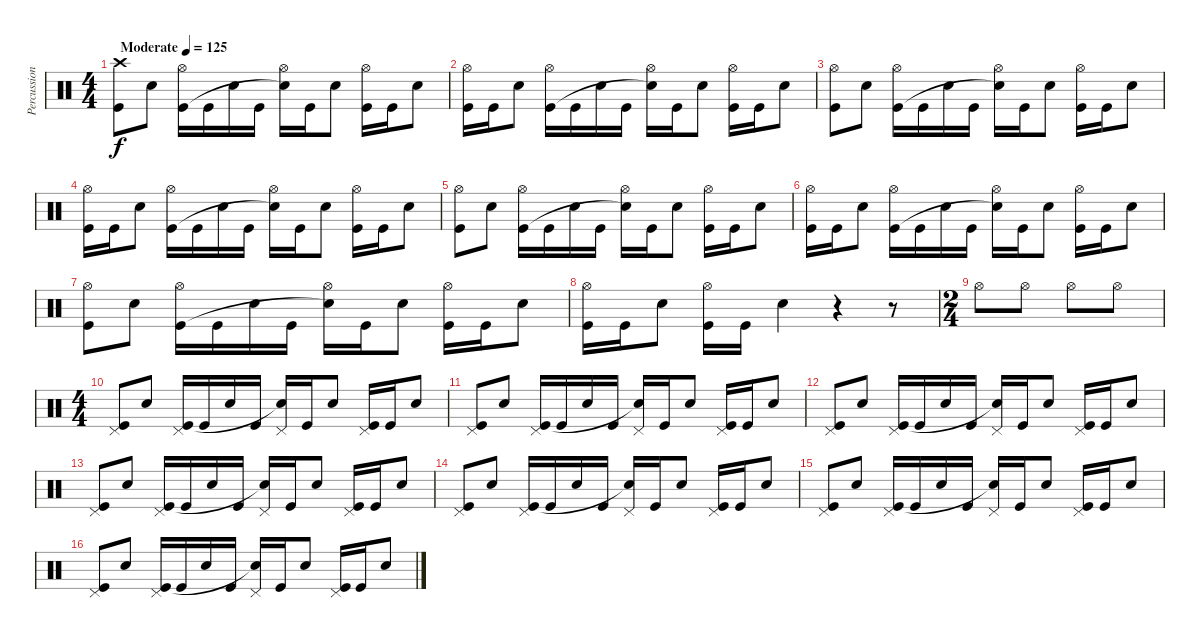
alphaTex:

\track ("Percussion" "Percussion") {instrument percussion}
\staff {score}
\articulation defaults
\ts (4 4)
\tempo (125 "Moderate")
\clef neutral
\ks c
("Crash high (hit)" "Kick (hit)").8{dy f} "Electric Snare (hit)".8 ("Hi-Hat (open)" "Kick (hit)").16 "Kick (hit)".16 "Electric Snare (hit)".16 "Kick (hit)".16 ("Hi-Hat (open)" "Snare (hit)"{t}).16 "Kick (hit)".16 "Electric Snare (hit)".8 ("Hi-Hat (open)" "Kick (hit)").16 "Kick (hit)".16 "Electric Snare (hit)".8 |
("Hi-Hat (open)" "Kick (hit)").16 "Kick (hit)".16 "Electric Snare (hit)".8 ("Hi-Hat (open)" "Kick (hit)").16 "Kick (hit)".16 "Electric Snare (hit)".16 "Kick (hit)".16 ("Hi-Hat (open)" "Snare (hit)"{t}).16 "Kick (hit)".16 "Electric Snare (hit)".8 ("Hi-Hat (open)" "Kick (hit)").16 "Kick (hit)".16 "Electric Snare (hit)".8 |
("Hi-Hat (open)" "Kick (hit)").8 "Electric Snare (hit)".8 ("Hi-Hat (open)" "Kick (hit)").16 "Kick (hit)".16 "Electric Snare (hit)".16 "Kick (hit)".16 ("Hi-Hat (open)" "Snare (hit)"{t}).16 "Kick (hit)".16 "Electric Snare (hit)".8 ("Hi-Hat (open)" "Kick (hit)").16 "Kick (hit)".16 "Electric Snare (hit)".8 |
("Hi-Hat (open)" "Kick (hit)").16 "Kick (hit)".16 "Electric Snare (hit)".8 ("Hi-Hat (open)" "Kick (hit)").16 "Kick (hit)".16 "Electric Snare (hit)".16 "Kick (hit)".16 ("Hi-Hat (open)" "Snare (hit)"{t}).16 "Kick (hit)".16 "Electric Snare (hit)".8 ("Hi-Hat (open)" "Kick (hit)").16 "Kick (hit)".16 "Electric Snare (hit)".8 |
("Hi-Hat (open)" "Kick (hit)").8 "Electric Snare (hit)".8 ("Hi-Hat (open)" "Kick (hit)").16 "Kick (hit)".16 "Electric Snare (hit)".16 "Kick (hit)".16 ("Hi-Hat (open)" "Snare (hit)"{t}).16 "Kick (hit)".16 "Electric Snare (hit)".8 ("Hi-Hat (open)" "Kick (hit)").16 "Kick (hit)".16 "Electric Snare (hit)".8 |
("Hi-Hat (open)" "Kick (hit)").16 "Kick (hit)".16 "Electric Snare (hit)".8 ("Hi-Hat (open)" "Kick (hit)").16 "Kick (hit)".16 "Electric Snare (hit)".16 "Kick (hit)".16 ("Hi-Hat (open)" "Snare (hit)"{t}).16 "Kick (hit)".16 "Electric Snare (hit)".8 ("Hi-Hat (open)" "Kick (hit)").16 "Kick (hit)".16 "Electric Snare (hit)".8 |
("Hi-Hat (open)" "Kick (hit)").8 "Electric Snare (hit)".8 ("Hi-Hat (open)" "Kick (hit)").16 "Kick (hit)".16 "Electric Snare (hit)".16 "Kick (hit)".16 ("Hi-Hat (open)" "Snare (hit)"{t}).16 "Kick (hit)".16 "Electric Snare (hit)".8 ("Hi-Hat (open)" "Kick (hit)").16 "Kick (hit)".16 "Electric Snare (hit)".8 |
("Hi-Hat (open)" "Kick (hit)").16 "Kick (hit)".16 "Electric Snare (hit)".8 ("Hi-Hat (open)" "Kick (hit)").16 "Kick (hit)".16 "Electric Snare (hit)".4 r.4 r.8 |
\ts (2 4)
"Hi-Hat (open)".8 "Hi-Hat (open)".8 "Hi-Hat (open)".8 "Hi-Hat (open)".8 |
\ts (4 4)
("Pedal Hi-Hat (hit)" "Kick (hit)").8 "Electric Snare (hit)".8 ("Pedal Hi-Hat (hit)" "Kick (hit)").16 "Kick (hit)".16 "Electric Snare (hit)".16 "Kick (hit)".16 ("Pedal Hi-Hat (hit)" "Snare (hit)"{t}).16 "Kick (hit)".16 "Electric Snare (hit)".8 ("Pedal Hi-Hat (hit)" "Kick (hit)").16 "Kick (hit)".16 "Electric Snare (hit)".8 |
("Pedal Hi-Hat (hit)" "Kick (hit)").8 "Electric Snare (hit)".8 ("Pedal Hi-Hat (hit)" "Kick (hit)").16 "Kick (hit)".16 "Electric Snare (hit)".16 "Kick (hit)".16 ("Pedal Hi-Hat (hit)" "Snare (hit)"{t}).16 "Kick (hit)".16 "Electric Snare (hit)".8 ("Pedal Hi-Hat (hit)" "Kick (hit)").16 "Kick (hit)".16 "Electric Snare (hit)".8 |
("Pedal Hi-Hat (hit)" "Kick (hit)").8 "Electric Snare (hit)".8 ("Pedal Hi-Hat (hit)" "Kick (hit)").16 "Kick (hit)".16 "Electric Snare (hit)".16 "Kick (hit)".16 ("Pedal Hi-Hat (hit)" "Snare (hit)"{t}).16 "Kick (hit)".16 "Electric Snare (hit)".8 ("Pedal Hi-Hat (hit)" "Kick (hit)").16 "Kick (hit)".16 "Electric Snare (hit)".8 |
("Pedal Hi-Hat (hit)" "Kick (hit)").8 "Electric Snare (hit)".8 ("Pedal Hi-Hat (hit)" "Kick (hit)").16 "Kick (hit)".16 "Electric Snare (hit)".16 "Kick (hit)".16 ("Pedal Hi-Hat (hit)" "Snare (hit)"{t}).16 "Kick (hit)".16 "Electric Snare (hit)".8 ("Pedal Hi-Hat (hit)" "Kick (hit)").16 "Kick (hit)".16 "Electric Snare (hit)".8 |
("Pedal Hi-Hat (hit)" "Kick (hit)").8 "Electric Snare (hit)".8 ("Pedal Hi-Hat (hit)" "Kick (hit)").16 "Kick (hit)".16 "Electric Snare (hit)".16 "Kick (hit)".16 ("Pedal Hi-Hat (hit)" "Snare (hit)"{t}).16 "Kick (hit)".16 "Electric Snare (hit)".8 ("Pedal Hi-Hat (hit)" "Kick (hit)").16 "Kick (hit)".16 "Electric Snare (hit)".8 |
("Pedal Hi-Hat (hit)" "Kick (hit)").8 "Electric Snare (hit)".8 ("Pedal Hi-Hat (hit)" "Kick (hit)").16 "Kick (hit)".16 "Electric Snare (hit)".16 "Kick (hit)".16 ("Pedal Hi-Hat (hit)" "Snare (hit)"{t}).16 "Kick (hit)".16 "Electric Snare (hit)".8 ("Pedal Hi-Hat (hit)" "Kick (hit)").16 "Kick (hit)".16 "Electric Snare (hit)".8 |
("Pedal Hi-Hat (hit)" "Kick (hit)").8 "Electric Snare (hit)".8 ("Pedal Hi-Hat (hit)" "Kick (hit)").16 "Kick (hit)".16 "Electric Snare (hit)".16 "Kick (hit)".16 ("Pedal Hi-Hat (hit)" "Snare (hit)"{t}).16 "Kick (hit)".16 "Electric Snare (hit)".8 ("Pedal Hi-Hat (hit)" "Kick (hit)").16 "Kick (hit)".16 "Electric Snare (hit)".8
